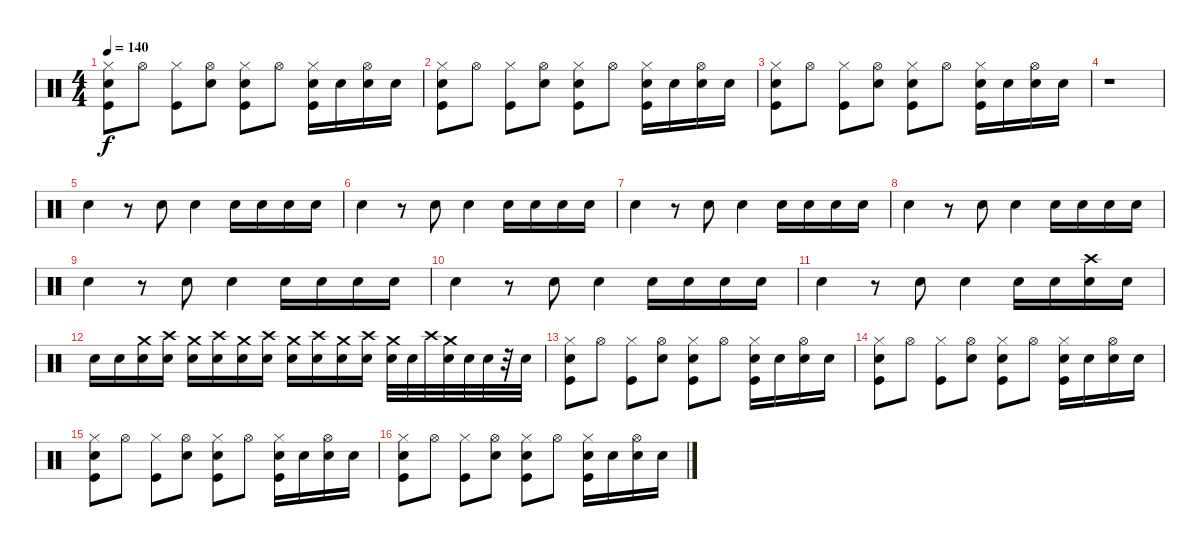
\track "" {instrument percussion}
\staff {score}
\articulation defaults
\ts (4 4)
\tempo 140
\clef neutral
\ks c
("Snare (hit) 2" "Hi-Hat (closed)" "Kick (hit)").8{dy f} "Hi-Hat (open)".8 ("Hi-Hat (closed)" "Kick (hit)").8 ("Snare (hit) 2" "Hi-Hat (open)").8 ("Snare (hit) 2" "Hi-Hat (closed)" "Kick (hit)").8 "Hi-Hat (open)".8 ("Snare (hit) 2" "Hi-Hat (closed)" "Kick (hit)").16 "Snare (hit) 2".16 ("Snare (hit) 2" "Hi-Hat (open)").16 "Snare (hit) 2".16 |
("Snare (hit) 2" "Hi-Hat (closed)" "Kick (hit)").8 "Hi-Hat (open)".8 ("Hi-Hat (closed)" "Kick (hit)").8 ("Snare (hit) 2" "Hi-Hat (open)").8 ("Snare (hit) 2" "Hi-Hat (closed)" "Kick (hit)").8 "Hi-Hat (open)".8 ("Snare (hit) 2" "Hi-Hat (closed)" "Kick (hit)").16 "Snare (hit) 2".16 ("Snare (hit) 2" "Hi-Hat (open)").16 "Snare (hit) 2".16 |
("Snare (hit) 2" "Hi-Hat (closed)" "Kick (hit)").8 "Hi-Hat (open)".8 ("Hi-Hat (closed)" "Kick (hit)").8 ("Snare (hit) 2" "Hi-Hat (open)").8 ("Snare (hit) 2" "Hi-Hat (closed)" "Kick (hit)").8 "Hi-Hat (open)".8 ("Snare (hit) 2" "Hi-Hat (closed)" "Kick (hit)").16 "Snare (hit) 2".16 ("Snare (hit) 2" "Hi-Hat (open)").16 "Snare (hit) 2".16 |
r.1 |
"Snare (hit) 2".4 r.8 "Snare (hit) 2".8 "Snare (hit) 2".4 "Snare (hit) 2".16 "Snare (hit) 2".16 "Snare (hit) 2".16 "Snare (hit) 2".16 |
"Snare (hit) 2".4 r.8 "Snare (hit) 2".8 "Snare (hit) 2".4 "Snare (hit) 2".16 "Snare (hit) 2".16 "Snare (hit) 2".16 "Snare (hit) 2".16 |
"Snare (hit) 2".4 r.8 "Snare (hit) 2".8 "Snare (hit) 2".4 "Snare (hit) 2".16 "Snare (hit) 2".16 "Snare (hit) 2".16 "Snare (hit) 2".16 |
"Snare (hit) 2".4 r.8 "Snare (hit) 2".8 "Snare (hit) 2".4 "Snare (hit) 2".16 "Snare (hit) 2".16 "Snare (hit) 2".16 "Snare (hit) 2".16 |
"Snare (hit) 2".4 r.8 "Snare (hit) 2".8 "Snare (hit) 2".4 "Snare (hit) 2".16 "Snare (hit) 2".16 "Snare (hit) 2".16 "Snare (hit) 2".16 |
"Snare (hit) 2".4 r.8 "Snare (hit) 2".8 "Snare (hit) 2".4 "Snare (hit) 2".16 "Snare (hit) 2".16 "Snare (hit) 2".16 "Snare (hit) 2".16 |
"Snare (hit) 2".4 r.8 "Snare (hit) 2".8 "Snare (hit) 2".4 "Snare (hit) 2".16 "Snare (hit) 2".16 ("Snare (hit) 2" "Crash high (hit)").16 "Snare (hit) 2".16 |
"Snare (hit) 2".16 "Snare (hit) 2".16 ("Snare (hit) 2" "Crash medium (hit)").16 ("Snare (hit) 2" "Crash high (hit)").16 ("Snare (hit) 2" "Crash medium (hit)").16 ("Snare (hit) 2" "Crash high (hit)").16 ("Snare (hit) 2" "Crash medium (hit)").16 ("Snare (hit) 2" "Crash high (hit)").16 ("Snare (hit) 2" "Crash medium (hit)").16 ("Snare (hit) 2" "Crash high (hit)").16 ("Snare (hit) 2" "Crash medium (hit)").16 ("Snare (hit) 2" "Crash high (hit)").16 ("Snare (hit) 2" "Crash medium (hit)").32 "Snare (hit) 2".32 "Crash high (hit)".32 ("Snare (hit) 2" "Crash medium (hit)").32 "Snare (hit) 2".32 "Electric Snare (hit)".32 r.32 "Electric Snare (hit)".32 |
("Snare (hit) 2" "Hi-Hat (closed)" "Kick (hit)").8 "Hi-Hat (open)".8 ("Hi-Hat (closed)" "Kick (hit)").8 ("Snare (hit) 2" "Hi-Hat (open)").8 ("Snare (hit) 2" "Hi-Hat (closed)" "Kick (hit)").8 "Hi-Hat (open)".8 ("Snare (hit) 2" "Hi-Hat (closed)" "Kick (hit)").16 "Snare (hit) 2".16 ("Snare (hit) 2" "Hi-Hat (open)").16 "Snare (hit) 2".16 |
("Snare (hit) 2" "Hi-Hat (closed)" "Kick (hit)").8 "Hi-Hat (open)".8 ("Hi-Hat (closed)" "Kick (hit)").8 ("Snare (hit) 2" "Hi-Hat (open)").8 ("Snare (hit) 2" "Hi-Hat (closed)" "Kick (hit)").8 "Hi-Hat (open)".8 ("Snare (hit) 2" "Hi-Hat (closed)" "Kick (hit)").16 "Snare (hit) 2".16 ("Snare (hit) 2" "Hi-Hat (open)").16 "Snare (hit) 2".16 |
("Snare (hit) 2" "Hi-Hat (closed)" "Kick (hit)").8 "Hi-Hat (open)".8 ("Hi-Hat (closed)" "Kick (hit)").8 ("Snare (hit) 2" "Hi-Hat (open)").8 ("Snare (hit) 2" "Hi-Hat (closed)" "Kick (hit)").8 "Hi-Hat (open)".8 ("Snare (hit) 2" "Hi-Hat (closed)" "Kick (hit)").16 "Snare (hit) 2".16 ("Snare (hit) 2" "Hi-Hat (open)").16 "Snare (hit) 2".16 |
("Snare (hit) 2" "Hi-Hat (closed)" "Kick (hit)").8 "Hi-Hat (open)".8 ("Hi-Hat (closed)" "Kick (hit)").8 ("Snare (hit) 2" "Hi-Hat (open)").8 ("Snare (hit) 2" "Hi-Hat (closed)" "Kick (hit)").8 "Hi-Hat (open)".8 ("Snare (hit) 2" "Hi-Hat (closed)" "Kick (hit)").16 "Snare (hit) 2".16 ("Snare (hit) 2" "Hi-Hat (open)").16 "Snare (hit) 2".16
